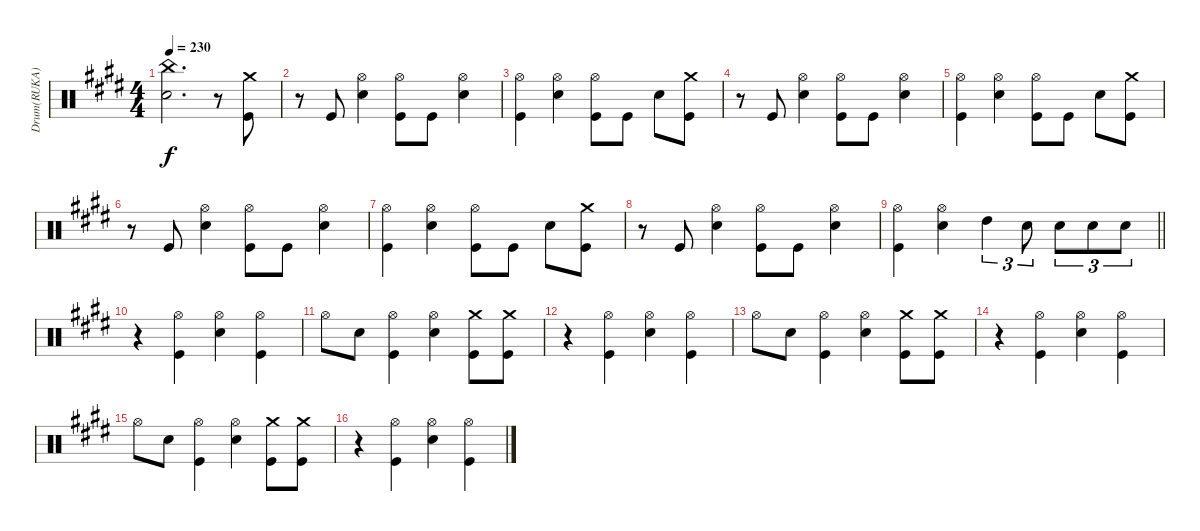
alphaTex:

\track ("Drum(RUKA)" "Drum(RUKA)") {instrument percussion}
\staff {score}
\articulation defaults
\ts (4 4)
\tempo 230
\clef neutral
\ks e
("China (hit)" "Electric Snare (hit)").2{d dy f} r.8 ("Crash medium (hit)" "Kick (hit)").8 |
r.8 "Kick (hit)".8 ("Hi-Hat (open)" "Electric Snare (hit)").4 ("Hi-Hat (open)" "Kick (hit)").8 "Kick (hit)".8 ("Hi-Hat (open)" "Electric Snare (hit)").4 |
("Hi-Hat (open)" "Kick (hit)").4 ("Hi-Hat (open)" "Electric Snare (hit)").4 ("Hi-Hat (open)" "Kick (hit)").8 "Kick (hit)".8 "Electric Snare (hit)".8 ("Crash medium (hit)" "Kick (hit)").8 |
r.8 "Kick (hit)".8 ("Hi-Hat (open)" "Electric Snare (hit)").4 ("Hi-Hat (open)" "Kick (hit)").8 "Kick (hit)".8 ("Hi-Hat (open)" "Electric Snare (hit)").4 |
("Hi-Hat (open)" "Kick (hit)").4 ("Hi-Hat (open)" "Electric Snare (hit)").4 ("Hi-Hat (open)" "Kick (hit)").8 "Kick (hit)".8 "Electric Snare (hit)".8 ("Crash medium (hit)" "Kick (hit)").8 |
r.8 "Kick (hit)".8 ("Hi-Hat (open)" "Electric Snare (hit)").4 ("Hi-Hat (open)" "Kick (hit)").8 "Kick (hit)".8 ("Hi-Hat (open)" "Electric Snare (hit)").4 |
("Hi-Hat (open)" "Kick (hit)").4 ("Hi-Hat (open)" "Electric Snare (hit)").4 ("Hi-Hat (open)" "Kick (hit)").8 "Kick (hit)".8 "Electric Snare (hit)".8 ("Crash medium (hit)" "Kick (hit)").8 |
r.8 "Kick (hit)".8 ("Hi-Hat (open)" "Electric Snare (hit)").4 ("Hi-Hat (open)" "Kick (hit)").8 "Kick (hit)".8 ("Hi-Hat (open)" "Electric Snare (hit)").4 |
\barLineRight lightlight
("Hi-Hat (open)" "Kick (hit)").4 ("Hi-Hat (open)" "Electric Snare (hit)").4 "High Tom (hit)".4{tu (3 2)} "Electric Snare (hit)".8{tu (3 2)} "Electric Snare (hit)".8{tu (3 2)} "Electric Snare (hit)".8{tu (3 2)} "Electric Snare (hit)".8{tu (3 2)} |
r.4 ("Hi-Hat (open)" "Kick (hit)").4 ("Hi-Hat (open)" "Electric Snare (hit)").4 ("Hi-Hat (open)" "Kick (hit)").4 |
"Hi-Hat (open)".8 "Electric Snare (hit)".8 ("Hi-Hat (open)" "Kick (hit)").4 ("Hi-Hat (open)" "Electric Snare (hit)").4 ("Crash medium (hit)" "Kick (hit)").8 ("Crash medium (hit)" "Kick (hit)").8 |
r.4 ("Hi-Hat (open)" "Kick (hit)").4 ("Hi-Hat (open)" "Electric Snare (hit)").4 ("Hi-Hat (open)" "Kick (hit)").4 |
"Hi-Hat (open)".8 "Electric Snare (hit)".8 ("Hi-Hat (open)" "Kick (hit)").4 ("Hi-Hat (open)" "Electric Snare (hit)").4 ("Crash medium (hit)" "Kick (hit)").8 ("Crash medium (hit)" "Kick (hit)").8 |
r.4 ("Hi-Hat (open)" "Kick (hit)").4 ("Hi-Hat (open)" "Electric Snare (hit)").4 ("Hi-Hat (open)" "Kick (hit)").4 |
"Hi-Hat (open)".8 "Electric Snare (hit)".8 ("Hi-Hat (open)" "Kick (hit)").4 ("Hi-Hat (open)" "Electric Snare (hit)").4 ("Crash medium (hit)" "Kick (hit)").8 ("Crash medium (hit)" "Kick (hit)").8 |
r.4 ("Hi-Hat (open)" "Kick (hit)").4 ("Hi-Hat (open)" "Electric Snare (hit)").4 ("Hi-Hat (open)" "Kick (hit)").4
